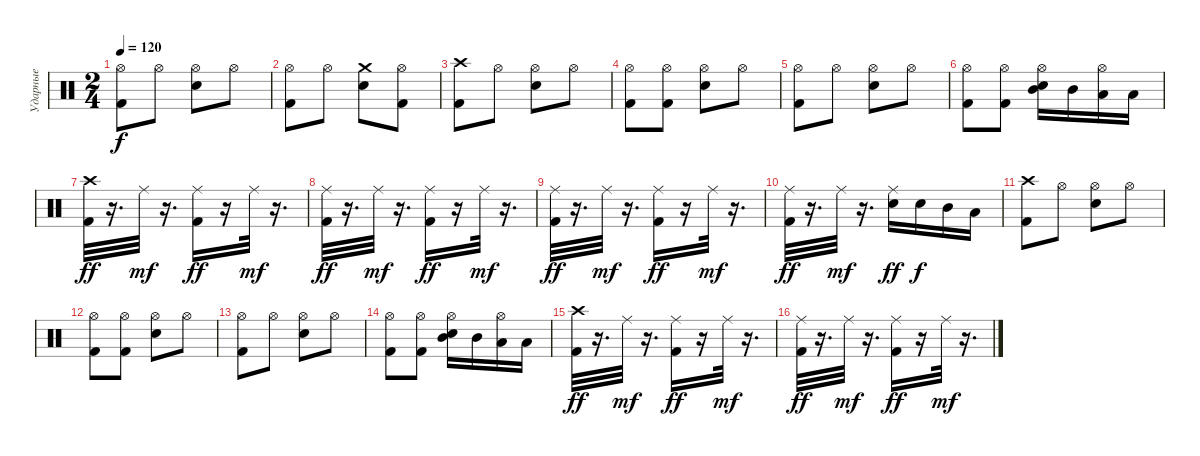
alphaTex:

\track ("Ударные" "Ударные") {instrument percussion}
\staff {score}
\articulation defaults
\ts (2 4)
\tempo 120
\clef neutral
\ks c
("Hi-Hat (open)" "Kick (hit) 2").8{dy f} "Hi-Hat (open)".8 ("Hi-Hat (open)" "Electric Snare (hit)").8 "Hi-Hat (open)".8 |
("Hi-Hat (open)" "Kick (hit) 2").8 "Hi-Hat (open)".8 ("Crash medium (hit)" "Electric Snare (hit)").8 ("Hi-Hat (open)" "Kick (hit) 2").8 |
("Crash high (hit)" "Kick (hit) 2").8 "Hi-Hat (open)".8 ("Hi-Hat (open)" "Electric Snare (hit)").8 "Hi-Hat (open)".8 |
("Hi-Hat (open)" "Kick (hit) 2").8 ("Hi-Hat (open)" "Kick (hit) 2").8 ("Hi-Hat (open)" "Electric Snare (hit)").8 "Hi-Hat (open)".8 |
("Hi-Hat (open)" "Kick (hit) 2").8 "Hi-Hat (open)".8 ("Hi-Hat (open)" "Electric Snare (hit)").8 "Hi-Hat (open)".8 |
("Hi-Hat (open)" "Kick (hit) 2").8 ("Hi-Hat (open)" "Kick (hit) 2").8 ("Hi-Hat (open)" "Mid Tom (hit)" "Electric Snare (hit)").16 "Mid Tom (hit)".16 ("Hi-Hat (open)" "Low Tom (hit)").16 "Low Tom (hit)".16 |
("Crash high (hit)" "Kick (hit) 2").32{dy ff} r.16{d} "Ride (middle)".32{dy mf} r.16{d} ("Ride (middle)" "Kick (hit) 2").16{dy ff} r.16 "Ride (middle)".32{dy mf} r.16{d} |
("Ride (middle)" "Kick (hit) 2").32{dy ff} r.16{d} "Ride (middle)".32{dy mf} r.16{d} ("Ride (middle)" "Kick (hit) 2").16{dy ff} r.16 "Ride (middle)".32{dy mf} r.16{d} |
("Ride (middle)" "Kick (hit) 2").32{dy ff} r.16{d} "Ride (middle)".32{dy mf} r.16{d} ("Ride (middle)" "Kick (hit) 2").16{dy ff} r.16 "Ride (middle)".32{dy mf} r.16{d} |
("Ride (middle)" "Kick (hit) 2").32{dy ff} r.16{d} "Ride (middle)".32{dy mf} r.16{d} ("Ride (middle)" "Electric Snare (hit)").16{dy ff} "Electric Snare (hit)".16{dy f} "Mid Tom (hit)".16 "Low Tom (hit)".16 |
("Crash high (hit)" "Kick (hit) 2").8 "Hi-Hat (open)".8 ("Hi-Hat (open)" "Electric Snare (hit)").8 "Hi-Hat (open)".8 |
("Hi-Hat (open)" "Kick (hit) 2").8 ("Hi-Hat (open)" "Kick (hit) 2").8 ("Hi-Hat (open)" "Electric Snare (hit)").8 "Hi-Hat (open)".8 |
("Hi-Hat (open)" "Kick (hit) 2").8 "Hi-Hat (open)".8 ("Hi-Hat (open)" "Electric Snare (hit)").8 "Hi-Hat (open)".8 |
("Hi-Hat (open)" "Kick (hit) 2").8 ("Hi-Hat (open)" "Kick (hit) 2").8 ("Hi-Hat (open)" "Mid Tom (hit)" "Electric Snare (hit)").16 "Mid Tom (hit)".16 ("Hi-Hat (open)" "Low Tom (hit)").16 "Low Tom (hit)".16 |
("Crash high (hit)" "Kick (hit) 2").32{dy ff} r.16{d} "Ride (middle)".32{dy mf} r.16{d} ("Ride (middle)" "Kick (hit) 2").16{dy ff} r.16 "Ride (middle)".32{dy mf} r.16{d} |
("Ride (middle)" "Kick (hit) 2").32{dy ff} r.16{d} "Ride (middle)".32{dy mf} r.16{d} ("Ride (middle)" "Kick (hit) 2").16{dy ff} r.16 "Ride (middle)".32{dy mf} r.16{d}
